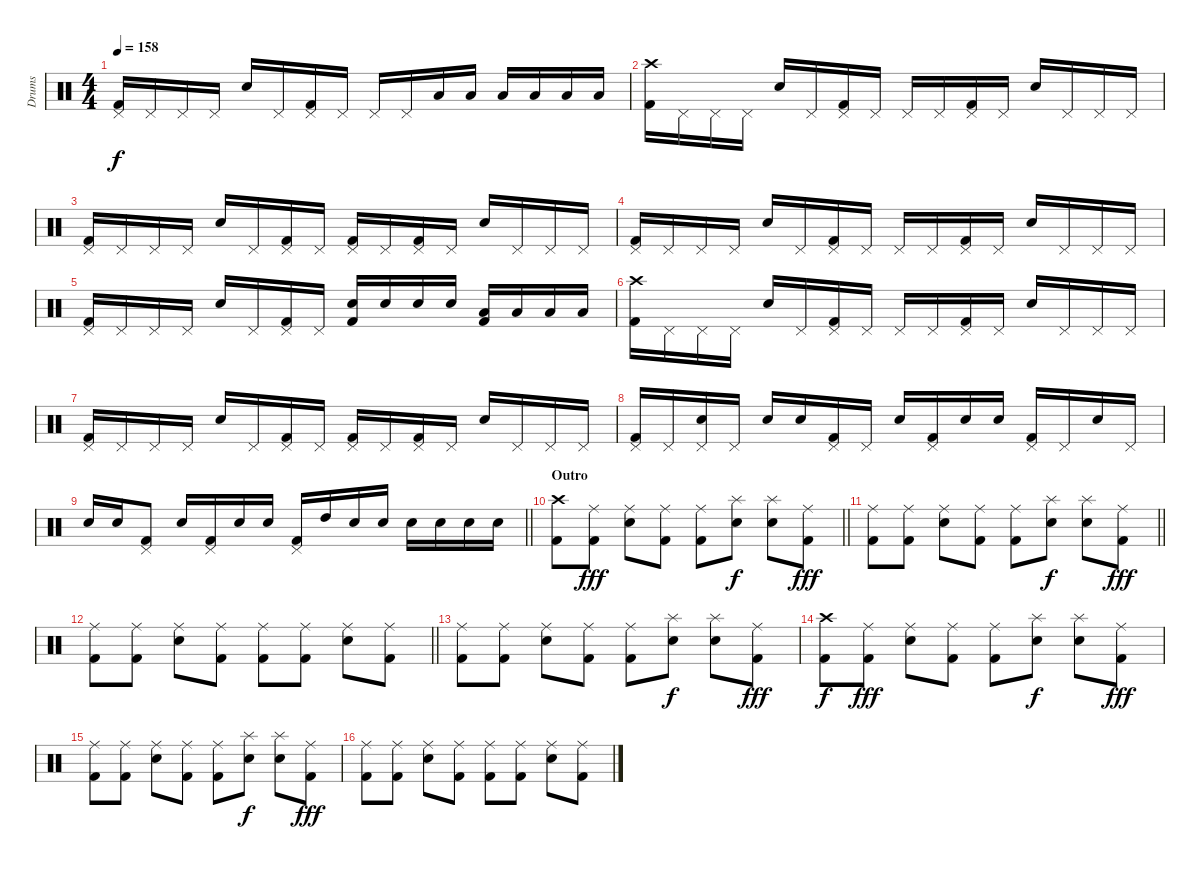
\track ("Drums" "Drums") {instrument percussion}
\staff {score}
\articulation defaults
\ts (4 4)
\tempo 158
\clef neutral
\ks c
("Pedal Hi-Hat (hit)" "Kick (hit) 2").16{dy f} "Pedal Hi-Hat (hit)".16 "Pedal Hi-Hat (hit)".16 "Pedal Hi-Hat (hit)".16 "Electric Snare (hit)".16 "Pedal Hi-Hat (hit)".16 ("Pedal Hi-Hat (hit)" "Kick (hit) 2").16 "Pedal Hi-Hat (hit)".16 "Pedal Hi-Hat (hit)".16 "Pedal Hi-Hat (hit)".16 "Low Tom (hit)".16 "Low Tom (hit)".16 "Low Tom (hit)".16 "Low Tom (hit)".16 "Low Tom (hit)".16 "Low Tom (hit)".16 |
("Crash high (hit)" "Kick (hit) 2").16 "Pedal Hi-Hat (hit)".16 "Pedal Hi-Hat (hit)".16 "Pedal Hi-Hat (hit)".16 "Electric Snare (hit)".16 "Pedal Hi-Hat (hit)".16 ("Pedal Hi-Hat (hit)" "Kick (hit) 2").16 "Pedal Hi-Hat (hit)".16 "Pedal Hi-Hat (hit)".16 "Pedal Hi-Hat (hit)".16 ("Pedal Hi-Hat (hit)" "Kick (hit) 2").16 "Pedal Hi-Hat (hit)".16 "Electric Snare (hit)".16 "Pedal Hi-Hat (hit)".16 "Pedal Hi-Hat (hit)".16 "Pedal Hi-Hat (hit)".16 |
("Pedal Hi-Hat (hit)" "Kick (hit) 2").16 "Pedal Hi-Hat (hit)".16 "Pedal Hi-Hat (hit)".16 "Pedal Hi-Hat (hit)".16 "Electric Snare (hit)".16 "Pedal Hi-Hat (hit)".16 ("Pedal Hi-Hat (hit)" "Kick (hit) 2").16 "Pedal Hi-Hat (hit)".16 ("Pedal Hi-Hat (hit)" "Kick (hit) 2").16 "Pedal Hi-Hat (hit)".16 ("Pedal Hi-Hat (hit)" "Kick (hit) 2").16 "Pedal Hi-Hat (hit)".16 "Electric Snare (hit)".16 "Pedal Hi-Hat (hit)".16 "Pedal Hi-Hat (hit)".16 "Pedal Hi-Hat (hit)".16 |
("Pedal Hi-Hat (hit)" "Kick (hit) 2").16 "Pedal Hi-Hat (hit)".16 "Pedal Hi-Hat (hit)".16 "Pedal Hi-Hat (hit)".16 "Electric Snare (hit)".16 "Pedal Hi-Hat (hit)".16 ("Pedal Hi-Hat (hit)" "Kick (hit) 2").16 "Pedal Hi-Hat (hit)".16 "Pedal Hi-Hat (hit)".16 "Pedal Hi-Hat (hit)".16 ("Pedal Hi-Hat (hit)" "Kick (hit) 2").16 "Pedal Hi-Hat (hit)".16 "Electric Snare (hit)".16 "Pedal Hi-Hat (hit)".16 "Pedal Hi-Hat (hit)".16 "Pedal Hi-Hat (hit)".16 |
("Pedal Hi-Hat (hit)" "Kick (hit) 2").16 "Pedal Hi-Hat (hit)".16 "Pedal Hi-Hat (hit)".16 "Pedal Hi-Hat (hit)".16 "Electric Snare (hit)".16 "Pedal Hi-Hat (hit)".16 ("Pedal Hi-Hat (hit)" "Kick (hit) 2").16 "Pedal Hi-Hat (hit)".16 ("Electric Snare (hit)" "Kick (hit) 2").16 "Electric Snare (hit)".16 "Electric Snare (hit)".16 "Electric Snare (hit)".16 ("Low Tom (hit)" "Kick (hit) 2").16 "Low Tom (hit)".16 "Low Tom (hit)".16 "Low Tom (hit)".16 |
("Crash high (hit)" "Kick (hit) 2").16 "Pedal Hi-Hat (hit)".16 "Pedal Hi-Hat (hit)".16 "Pedal Hi-Hat (hit)".16 "Electric Snare (hit)".16 "Pedal Hi-Hat (hit)".16 ("Pedal Hi-Hat (hit)" "Kick (hit) 2").16 "Pedal Hi-Hat (hit)".16 "Pedal Hi-Hat (hit)".16 "Pedal Hi-Hat (hit)".16 ("Pedal Hi-Hat (hit)" "Kick (hit) 2").16 "Pedal Hi-Hat (hit)".16 "Electric Snare (hit)".16 "Pedal Hi-Hat (hit)".16 "Pedal Hi-Hat (hit)".16 "Pedal Hi-Hat (hit)".16 |
("Pedal Hi-Hat (hit)" "Kick (hit) 2").16 "Pedal Hi-Hat (hit)".16 "Pedal Hi-Hat (hit)".16 "Pedal Hi-Hat (hit)".16 "Electric Snare (hit)".16 "Pedal Hi-Hat (hit)".16 ("Pedal Hi-Hat (hit)" "Kick (hit) 2").16 "Pedal Hi-Hat (hit)".16 ("Pedal Hi-Hat (hit)" "Kick (hit) 2").16 "Pedal Hi-Hat (hit)".16 ("Pedal Hi-Hat (hit)" "Kick (hit) 2").16 "Pedal Hi-Hat (hit)".16 "Electric Snare (hit)".16 "Pedal Hi-Hat (hit)".16 "Pedal Hi-Hat (hit)".16 "Pedal Hi-Hat (hit)".16 |
("Pedal Hi-Hat (hit)" "Kick (hit) 2").16 "Pedal Hi-Hat (hit)".16 ("Pedal Hi-Hat (hit)" "Electric Snare (hit)").16 "Pedal Hi-Hat (hit)".16 "Electric Snare (hit)".16 "Electric Snare (hit)".16 ("Pedal Hi-Hat (hit)" "Kick (hit) 2").16 "Pedal Hi-Hat (hit)".16 "Electric Snare (hit)".16 ("Pedal Hi-Hat (hit)" "Kick (hit) 2").16 "Electric Snare (hit)".16 "Electric Snare (hit)".16 ("Pedal Hi-Hat (hit)" "Kick (hit) 2").16 "Pedal Hi-Hat (hit)".16 "Electric Snare (hit)".16 "Pedal Hi-Hat (hit)".16 |
\barLineRight lightlight "Electric Snare (hit)".16 "Electric Snare (hit)".16
("Pedal Hi-Hat (hit)" "Kick (hit) 2").8 "Electric Snare (hit)".16 ("Pedal Hi-Hat (hit)" "Kick (hit) 2").16 "Electric Snare (hit)".16 "Electric Snare (hit)".16 ("Pedal Hi-Hat (hit)" "Kick (hit) 2").16 "High Tom (hit)".16 "Electric Snare (hit)".16 "Electric Snare (hit)".16 "Electric Snare (hit)".16 "Electric Snare (hit)".16 "Electric Snare (hit)".16 "Electric Snare (hit)".16 |
\section ("" "Outro")
\barLineRight lightlight
("Crash high (hit)" "Kick (hit) 2").8 ("Ride (middle)" "Kick (hit) 2").8{dy fff} ("Ride (middle)" "Electric Snare (hit)").8 ("Ride (middle)" "Kick (hit) 2").8 ("Ride (middle)" "Kick (hit) 2").8 ("Splash (hit)" "Electric Snare (hit)").8{dy f} ("Splash (hit)" "Electric Snare (hit)").8 ("Ride (middle)" "Kick (hit) 2").8{dy fff} |
\barLineRight lightlight
("Ride (middle)" "Kick (hit) 2").8 ("Ride (middle)" "Kick (hit) 2").8 ("Ride (middle)" "Electric Snare (hit)").8 ("Ride (middle)" "Kick (hit) 2").8 ("Ride (middle)" "Kick (hit) 2").8 ("Splash (hit)" "Electric Snare (hit)").8{dy f} ("Splash (hit)" "Electric Snare (hit)").8 ("Ride (middle)" "Kick (hit) 2").8{dy fff} |
\barLineRight lightlight
("Ride (middle)" "Kick (hit) 2").8 ("Ride (middle)" "Kick (hit) 2").8 ("Ride (middle)" "Electric Snare (hit)").8 ("Ride (middle)" "Kick (hit) 2").8 ("Ride (middle)" "Kick (hit) 2").8 ("Ride (middle)" "Kick (hit) 2").8 ("Ride (middle)" "Electric Snare (hit)").8 ("Ride (middle)" "Kick (hit) 2").8 |
("Ride (middle)" "Kick (hit) 2").8 ("Ride (middle)" "Kick (hit) 2").8 ("Ride (middle)" "Electric Snare (hit)").8 ("Ride (middle)" "Kick (hit) 2").8 ("Ride (middle)" "Kick (hit) 2").8 ("Splash (hit)" "Electric Snare (hit)").8{dy f} ("Splash (hit)" "Electric Snare (hit)").8 ("Ride (middle)" "Kick (hit) 2").8{dy fff} |
("Crash high (hit)" "Kick (hit) 2").8{dy f} ("Ride (middle)" "Kick (hit) 2").8{dy fff} ("Ride (middle)" "Electric Snare (hit)").8 ("Ride (middle)" "Kick (hit) 2").8 ("Ride (middle)" "Kick (hit) 2").8 ("Splash (hit)" "Electric Snare (hit)").8{dy f} ("Splash (hit)" "Electric Snare (hit)").8 ("Ride (middle)" "Kick (hit) 2").8{dy fff} |
("Ride (middle)" "Kick (hit) 2").8 ("Ride (middle)" "Kick (hit) 2").8 ("Ride (middle)" "Electric Snare (hit)").8 ("Ride (middle)" "Kick (hit) 2").8 ("Ride (middle)" "Kick (hit) 2").8 ("Splash (hit)" "Electric Snare (hit)").8{dy f} ("Splash (hit)" "Electric Snare (hit)").8 ("Ride (middle)" "Kick (hit) 2").8{dy fff} |
("Ride (middle)" "Kick (hit) 2").8 ("Ride (middle)" "Kick (hit) 2").8 ("Ride (middle)" "Electric Snare (hit)").8 ("Ride (middle)" "Kick (hit) 2").8 ("Ride (middle)" "Kick (hit) 2").8 ("Ride (middle)" "Kick (hit) 2").8 ("Ride (middle)" "Electric Snare (hit)").8 ("Ride (middle)" "Kick (hit) 2").8
